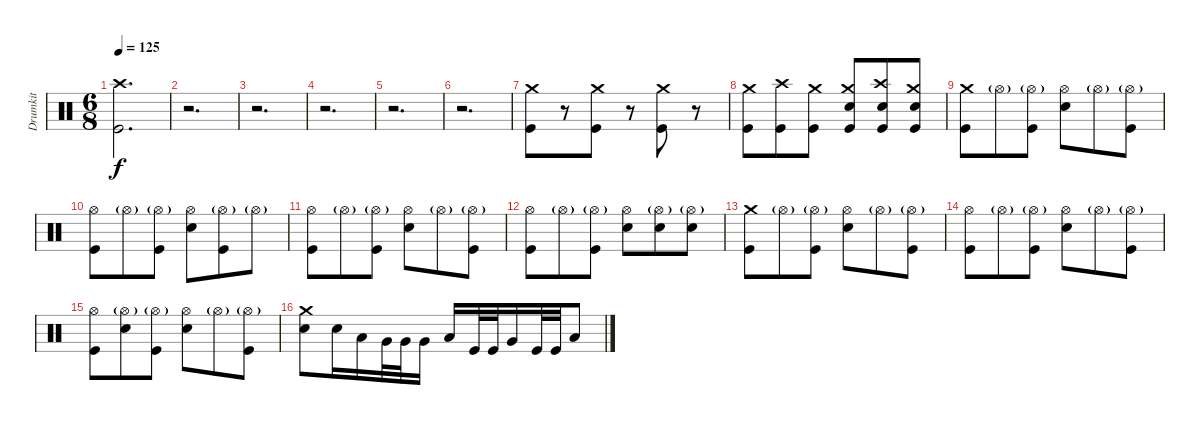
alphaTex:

\track ("Drumkit" "Drumkit") {instrument percussion}
\staff {score}
\articulation defaults
\ts (6 8)
\tempo 125
\clef neutral
\ks c
("Kick (hit)" "Crash high (hit)").2{d dy f} |
r.2{d} |
r.2{d} |
r.2{d} |
r.2{d} |
r.2{d} |
("Kick (hit)" "Crash medium (hit)").8 r.8 ("Kick (hit)" "Crash medium (hit)").8 r.8 ("Kick (hit)" "Crash medium (hit)").8 r.8 |
("Kick (hit)" "Crash medium (hit)").8 ("Kick (hit)" "Crash high (hit)").8 ("Kick (hit)" "Crash medium (hit)").8 ("Kick (hit)" "Crash medium (hit)" "Snare (hit) 2").8 ("Kick (hit)" "Crash high (hit)" "Snare (hit) 2").8 ("Kick (hit)" "Crash medium (hit)" "Snare (hit) 2").8 |
("Kick (hit)" "Crash medium (hit)").8 "Hi-Hat (open)"{g}.8 ("Hi-Hat (open)"{g} "Kick (hit)").8 ("Hi-Hat (open)" "Snare (hit) 2").8 "Hi-Hat (open)"{g}.8 ("Hi-Hat (open)"{g} "Kick (hit)").8 |
("Hi-Hat (open)" "Kick (hit)").8 "Hi-Hat (open)"{g}.8 ("Hi-Hat (open)"{g} "Kick (hit)").8 ("Hi-Hat (open)" "Snare (hit) 2").8 ("Hi-Hat (open)"{g} "Kick (hit)").8 "Hi-Hat (open)"{g}.8 |
("Hi-Hat (open)" "Kick (hit)").8 "Hi-Hat (open)"{g}.8 ("Hi-Hat (open)"{g} "Kick (hit)").8 ("Hi-Hat (open)" "Snare (hit) 2").8 "Hi-Hat (open)"{g}.8 ("Hi-Hat (open)"{g} "Kick (hit)").8 |
("Hi-Hat (open)" "Kick (hit)").8 "Hi-Hat (open)"{g}.8 ("Hi-Hat (open)"{g} "Kick (hit)").8 ("Hi-Hat (open)" "Snare (hit) 2").8 ("Hi-Hat (open)"{g} "Snare (hit) 2").8 ("Hi-Hat (open)"{g} "Snare (hit) 2").8 |
("Kick (hit)" "Crash medium (hit)").8 "Hi-Hat (open)"{g}.8 ("Hi-Hat (open)"{g} "Kick (hit)").8 ("Hi-Hat (open)" "Snare (hit) 2").8 "Hi-Hat (open)"{g}.8 ("Hi-Hat (open)"{g} "Kick (hit)").8 |
("Hi-Hat (open)" "Kick (hit)").8 "Hi-Hat (open)"{g}.8 ("Hi-Hat (open)"{g} "Kick (hit)").8 ("Hi-Hat (open)" "Snare (hit) 2").8 "Hi-Hat (open)"{g}.8 ("Hi-Hat (open)"{g} "Kick (hit)").8 |
("Hi-Hat (open)" "Kick (hit)").8 ("Hi-Hat (open)"{g} "Snare (hit) 2").8 ("Hi-Hat (open)"{g} "Kick (hit)").8 ("Hi-Hat (open)" "Snare (hit) 2").8 "Hi-Hat (open)"{g}.8 ("Hi-Hat (open)"{g} "Kick (hit)").8 |
("Crash medium (hit)" "Snare (hit) 2").8 "Snare (hit) 2".16 "Low Tom (hit)".16 "Very Low Tom (hit)".32 "Very Low Tom (hit)".32 "Very Low Tom (hit)".16 "Low Tom (hit)".16 "Kick (hit)".32 "Kick (hit)".32 "Very Low Tom (hit)".16 "Kick (hit)".32 "Kick (hit)".32 "Low Floor Tom (hit)".8
